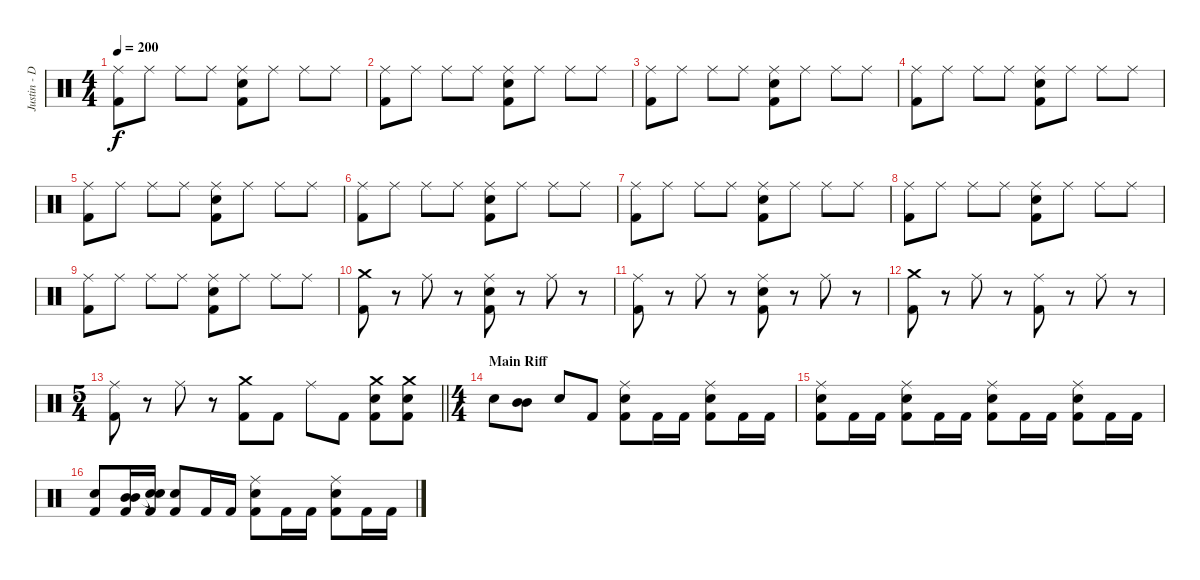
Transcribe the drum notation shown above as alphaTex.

\track ("Justin - Drums" "Justin - D") {instrument percussion}
\staff {score}
\articulation defaults
\ts (4 4)
\tempo 200
\clef neutral
\ks c
("Ride (middle)" "Kick (hit) 2").8{dy f} "Ride (middle)".8 "Ride (middle)".8 "Ride (middle)".8 ("Ride (middle)" "Snare (hit) 2" "Kick (hit) 2").8 "Ride (middle)".8 "Ride (middle)".8 "Ride (middle)".8 |
("Ride (middle)" "Kick (hit) 2").8 "Ride (middle)".8 "Ride (middle)".8 "Ride (middle)".8 ("Ride (middle)" "Snare (hit) 2" "Kick (hit) 2").8 "Ride (middle)".8 "Ride (middle)".8 "Ride (middle)".8 |
("Ride (middle)" "Kick (hit) 2").8 "Ride (middle)".8 "Ride (middle)".8 "Ride (middle)".8 ("Ride (middle)" "Snare (hit) 2" "Kick (hit) 2").8 "Ride (middle)".8 "Ride (middle)".8 "Ride (middle)".8 |
("Ride (middle)" "Kick (hit) 2").8 "Ride (middle)".8 "Ride (middle)".8 "Ride (middle)".8 ("Ride (middle)" "Snare (hit) 2" "Kick (hit) 2").8 "Ride (middle)".8 "Ride (middle)".8 "Ride (middle)".8 |
("Ride (middle)" "Kick (hit) 2").8 "Ride (middle)".8 "Ride (middle)".8 "Ride (middle)".8 ("Ride (middle)" "Snare (hit) 2" "Kick (hit) 2").8 "Ride (middle)".8 "Ride (middle)".8 "Ride (middle)".8 |
("Ride (middle)" "Kick (hit) 2").8 "Ride (middle)".8 "Ride (middle)".8 "Ride (middle)".8 ("Ride (middle)" "Snare (hit) 2" "Kick (hit) 2").8 "Ride (middle)".8 "Ride (middle)".8 "Ride (middle)".8 |
("Ride (middle)" "Kick (hit) 2").8 "Ride (middle)".8 "Ride (middle)".8 "Ride (middle)".8 ("Ride (middle)" "Snare (hit) 2" "Kick (hit) 2").8 "Ride (middle)".8 "Ride (middle)".8 "Ride (middle)".8 |
("Ride (middle)" "Kick (hit) 2").8 "Ride (middle)".8 "Ride (middle)".8 "Ride (middle)".8 ("Ride (middle)" "Snare (hit) 2" "Kick (hit) 2").8 "Ride (middle)".8 "Ride (middle)".8 "Ride (middle)".8 |
("Ride (middle)" "Kick (hit) 2").8 "Ride (middle)".8 "Ride (middle)".8 "Ride (middle)".8 ("Ride (middle)" "Snare (hit) 2" "Kick (hit) 2").8 "Ride (middle)".8 "Ride (middle)".8 "Ride (middle)".8 |
("Crash medium (hit)" "Kick (hit) 2").8 r.8 "Ride (middle)".8 r.8 ("Ride (middle)" "Snare (hit) 2" "Kick (hit) 2").8 r.8 "Ride (middle)".8 r.8 |
("Ride (middle)" "Kick (hit) 2").8 r.8 "Ride (middle)".8 r.8 ("Ride (middle)" "Snare (hit) 2" "Kick (hit) 2").8 r.8 "Ride (middle)".8 r.8 |
("Crash medium (hit)" "Kick (hit) 2").8 r.8 "Ride (middle)".8 r.8 ("Ride (middle)" "Kick (hit) 2").8 r.8 "Ride (middle)".8 r.8 |
\ts (5 4)
\barLineRight lightlight
("Ride (middle)" "Kick (hit) 2").8 r.8 "Ride (middle)".8 r.8 ("Crash medium (hit)" "Kick (hit) 2").8 "Kick (hit) 2".8 "Ride (middle)".8 "Kick (hit) 2".8 ("Crash medium (hit)" "Snare (hit) 2" "Kick (hit) 2").8 ("Crash medium (hit)" "Snare (hit) 2" "Kick (hit) 2").8 |
\ts (4 4)
\section ("" "Main Riff")
"Snare (hit) 2".8 ("Mid Tom (hit)" "Mid Tom (hit)").8 "Snare (hit) 2".8 "Kick (hit) 2".8 ("Ride (middle)" "Snare (hit) 2" "Kick (hit) 2").8 "Kick (hit) 2".16 "Kick (hit) 2".16 ("Ride (middle)" "Snare (hit) 2" "Kick (hit) 2").8 "Kick (hit) 2".16 "Kick (hit) 2".16 |
("Ride (middle)" "Snare (hit) 2" "Kick (hit) 2").8 "Kick (hit) 2".16 "Kick (hit) 2".16 ("Ride (middle)" "Snare (hit) 2" "Kick (hit) 2").8 "Kick (hit) 2".16 "Kick (hit) 2".16 ("Ride (middle)" "Snare (hit) 2" "Kick (hit) 2").8 "Kick (hit) 2".16 "Kick (hit) 2".16 ("Ride (middle)" "Snare (hit) 2" "Kick (hit) 2").8 "Kick (hit) 2".16 "Kick (hit) 2".16 |
("Snare (hit) 2" "Kick (hit) 2").8 ("Mid Tom (hit)" "Mid Tom (hit)" "Kick (hit) 2").16 ("Snare (hit)"{t} "Snare (hit)"{t} "Kick (hit) 2").16 ("Snare (hit) 2" "Kick (hit) 2").8 "Kick (hit) 2".16 "Kick (hit) 2".16 ("Ride (middle)" "Snare (hit) 2" "Kick (hit) 2").8 "Kick (hit) 2".16 "Kick (hit) 2".16 ("Ride (middle)" "Snare (hit) 2" "Kick (hit) 2").8 "Kick (hit) 2".16 "Kick (hit) 2".16
